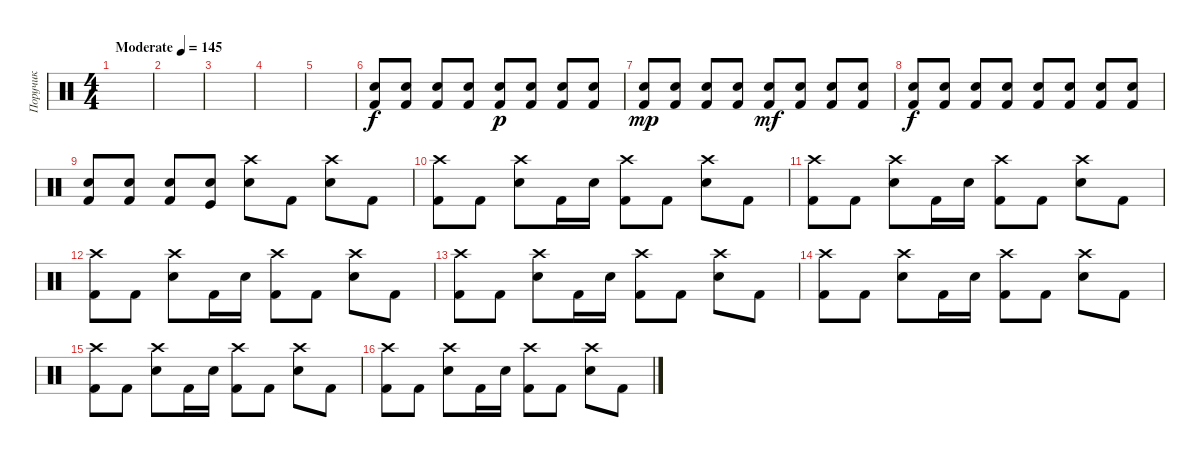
\track ("Поручик" "Поручик") {instrument percussion}
\staff {score}
\articulation defaults
\ts (4 4)
\tempo (145 "Moderate")
\clef neutral
\ks c
|
|
|
|
|
("Electric Snare (hit)" "Kick (hit) 2").8 ("Electric Snare (hit)" "Kick (hit) 2").8 ("Electric Snare (hit)" "Kick (hit) 2").8 ("Electric Snare (hit)" "Kick (hit) 2").8 ("Electric Snare (hit)" "Kick (hit) 2").8{dy p} ("Electric Snare (hit)" "Kick (hit) 2").8 ("Electric Snare (hit)" "Kick (hit) 2").8 ("Electric Snare (hit)" "Kick (hit) 2").8 |
("Electric Snare (hit)" "Kick (hit) 2").8{dy mp} ("Electric Snare (hit)" "Kick (hit) 2").8 ("Electric Snare (hit)" "Kick (hit) 2").8 ("Electric Snare (hit)" "Kick (hit) 2").8 ("Electric Snare (hit)" "Kick (hit) 2").8{dy mf} ("Electric Snare (hit)" "Kick (hit) 2").8 ("Electric Snare (hit)" "Kick (hit) 2").8 ("Electric Snare (hit)" "Kick (hit) 2").8 |
("Electric Snare (hit)" "Kick (hit) 2").8{dy f} ("Electric Snare (hit)" "Kick (hit) 2").8 ("Electric Snare (hit)" "Kick (hit) 2").8 ("Electric Snare (hit)" "Kick (hit) 2").8 ("Electric Snare (hit)" "Kick (hit) 2").8 ("Electric Snare (hit)" "Kick (hit) 2").8 ("Electric Snare (hit)" "Kick (hit) 2").8 ("Electric Snare (hit)" "Kick (hit) 2").8 |
("Electric Snare (hit)" "Kick (hit) 2").8 ("Electric Snare (hit)" "Kick (hit) 2").8 ("Electric Snare (hit)" "Kick (hit) 2").8 ("Electric Snare (hit)" "Kick (hit)").8 ("Crash high (hit)" "Electric Snare (hit)").8 "Kick (hit) 2".8 ("Crash high (hit)" "Electric Snare (hit)").8 "Kick (hit) 2".8 |
("Crash high (hit)" "Kick (hit) 2").8 "Kick (hit) 2".8 ("Crash high (hit)" "Electric Snare (hit)").8 "Kick (hit) 2".16 "Electric Snare (hit)".16 ("Crash high (hit)" "Kick (hit) 2").8 "Kick (hit) 2".8 ("Crash high (hit)" "Electric Snare (hit)").8 "Kick (hit) 2".8 |
("Crash high (hit)" "Kick (hit) 2").8 "Kick (hit) 2".8 ("Crash high (hit)" "Electric Snare (hit)").8 "Kick (hit) 2".16 "Electric Snare (hit)".16 ("Crash high (hit)" "Kick (hit) 2").8 "Kick (hit) 2".8 ("Crash high (hit)" "Electric Snare (hit)").8 "Kick (hit) 2".8 |
("Crash high (hit)" "Kick (hit) 2").8 "Kick (hit) 2".8 ("Crash high (hit)" "Electric Snare (hit)").8 "Kick (hit) 2".16 "Electric Snare (hit)".16 ("Crash high (hit)" "Kick (hit) 2").8 "Kick (hit) 2".8 ("Crash high (hit)" "Electric Snare (hit)").8 "Kick (hit) 2".8 |
("Crash high (hit)" "Kick (hit) 2").8 "Kick (hit) 2".8 ("Crash high (hit)" "Electric Snare (hit)").8 "Kick (hit) 2".16 "Electric Snare (hit)".16 ("Crash high (hit)" "Kick (hit) 2").8 "Kick (hit) 2".8 ("Crash high (hit)" "Electric Snare (hit)").8 "Kick (hit) 2".8 |
("Crash high (hit)" "Kick (hit) 2").8 "Kick (hit) 2".8 ("Crash high (hit)" "Electric Snare (hit)").8 "Kick (hit) 2".16 "Electric Snare (hit)".16 ("Crash high (hit)" "Kick (hit) 2").8 "Kick (hit) 2".8 ("Crash high (hit)" "Electric Snare (hit)").8 "Kick (hit) 2".8 |
("Crash high (hit)" "Kick (hit) 2").8 "Kick (hit) 2".8 ("Crash high (hit)" "Electric Snare (hit)").8 "Kick (hit) 2".16 "Electric Snare (hit)".16 ("Crash high (hit)" "Kick (hit) 2").8 "Kick (hit) 2".8 ("Crash high (hit)" "Electric Snare (hit)").8 "Kick (hit) 2".8 |
("Crash high (hit)" "Kick (hit) 2").8 "Kick (hit) 2".8 ("Crash high (hit)" "Electric Snare (hit)").8 "Kick (hit) 2".16 "Electric Snare (hit)".16 ("Crash high (hit)" "Kick (hit) 2").8 "Kick (hit) 2".8 ("Crash high (hit)" "Electric Snare (hit)").8 "Kick (hit) 2".8
